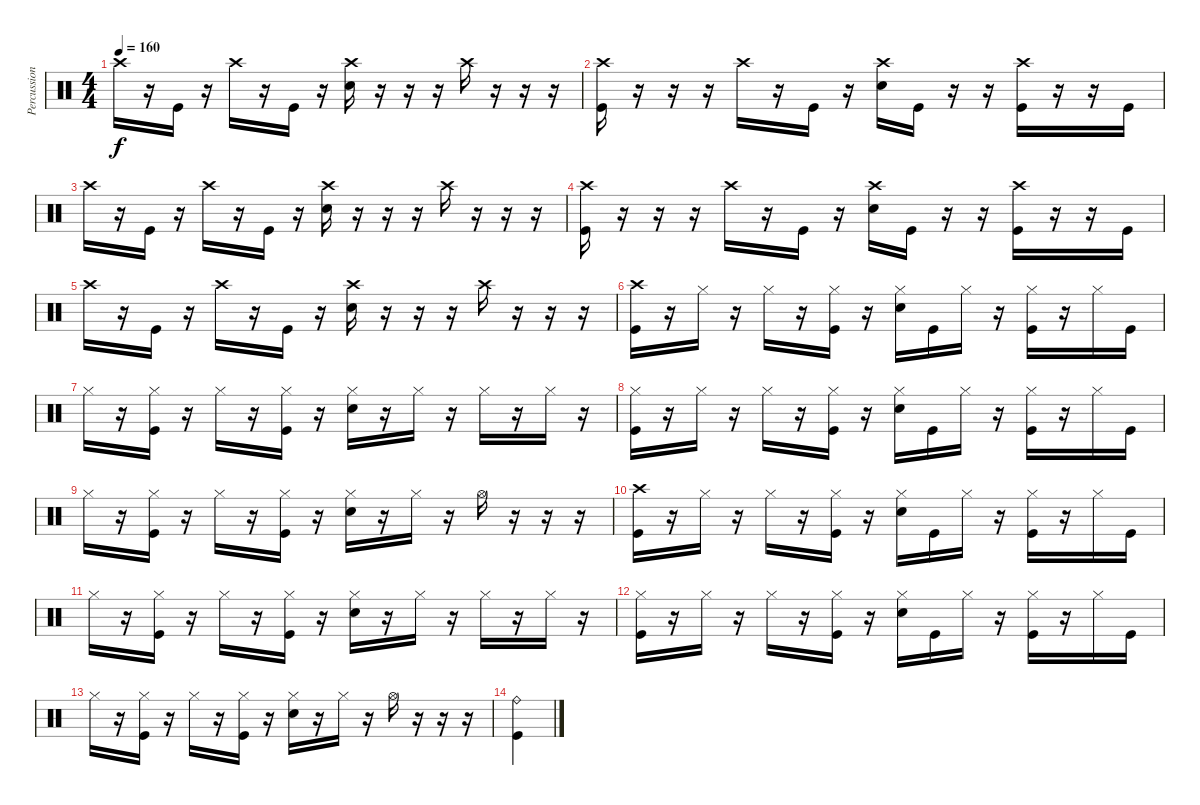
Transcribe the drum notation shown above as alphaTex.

\track ("Percussion" "Percussion") {instrument percussion}
\staff {score}
\articulation defaults
\ts (4 4)
\tempo 160
\clef neutral
\ks c "Crash high (hit)".16{dy f}
r.16 "Kick (hit)".16 r.16 "Crash high (hit)".16 r.16 "Kick (hit)".16 r.16 ("Crash high (hit)" "Snare (hit) 2").16 r.16 r.16 r.16 "Crash high (hit)".16 r.16 r.16 r.16 |
("Kick (hit)" "Crash high (hit)").16 r.16 r.16 r.16 "Crash high (hit)".16 r.16 "Kick (hit)".16 r.16 ("Crash high (hit)" "Snare (hit) 2").16 "Kick (hit)".16 r.16 r.16 ("Crash high (hit)" "Kick (hit)").16 r.16 r.16 "Kick (hit)".16 |
"Crash high (hit)".16 r.16 "Kick (hit)".16 r.16 "Crash high (hit)".16 r.16 "Kick (hit)".16 r.16 ("Crash high (hit)" "Snare (hit) 2").16 r.16 r.16 r.16 "Crash high (hit)".16 r.16 r.16 r.16 |
("Kick (hit)" "Crash high (hit)").16 r.16 r.16 r.16 "Crash high (hit)".16 r.16 "Kick (hit)".16 r.16 ("Crash high (hit)" "Snare (hit) 2").16 "Kick (hit)".16 r.16 r.16 ("Crash high (hit)" "Kick (hit)").16 r.16 r.16 "Kick (hit)".16 |
"Crash high (hit)".16 r.16 "Kick (hit)".16 r.16 "Crash high (hit)".16 r.16 "Kick (hit)".16 r.16 ("Crash high (hit)" "Snare (hit) 2").16 r.16 r.16 r.16 "Crash high (hit)".16 r.16 r.16 r.16 |
("Kick (hit)" "Crash high (hit)").16 r.16 "Hi-Hat (closed)".16 r.16 "Hi-Hat (closed)".16 r.16 ("Hi-Hat (closed)" "Kick (hit)").16 r.16 ("Hi-Hat (closed)" "Snare (hit) 2").16 "Kick (hit)".16 "Hi-Hat (closed)".16 r.16 ("Hi-Hat (closed)" "Kick (hit)").16 r.16 "Hi-Hat (closed)".16 "Kick (hit)".16 |
"Hi-Hat (closed)".16 r.16 ("Hi-Hat (closed)" "Kick (hit)").16 r.16 "Hi-Hat (closed)".16 r.16 ("Hi-Hat (closed)" "Kick (hit)").16 r.16 ("Hi-Hat (closed)" "Snare (hit) 2").16 r.16 "Hi-Hat (closed)".16 r.16 "Hi-Hat (closed)".16 r.16 "Hi-Hat (closed)".16 r.16 |
("Kick (hit)" "Hi-Hat (closed)").16 r.16 "Hi-Hat (closed)".16 r.16 "Hi-Hat (closed)".16 r.16 ("Hi-Hat (closed)" "Kick (hit)").16 r.16 ("Hi-Hat (closed)" "Snare (hit) 2").16 "Kick (hit)".16 "Hi-Hat (closed)".16 r.16 ("Hi-Hat (closed)" "Kick (hit)").16 r.16 "Hi-Hat (closed)".16 "Kick (hit)".16 |
"Hi-Hat (closed)".16 r.16 ("Hi-Hat (closed)" "Kick (hit)").16 r.16 "Hi-Hat (closed)".16 r.16 ("Hi-Hat (closed)" "Kick (hit)").16 r.16 ("Hi-Hat (closed)" "Snare (hit) 2").16 r.16 "Hi-Hat (closed)".16 r.16 "Hi-Hat (open)".16 r.16 r.16 r.16 |
("Kick (hit)" "Crash high (hit)").16 r.16 "Hi-Hat (closed)".16 r.16 "Hi-Hat (closed)".16 r.16 ("Hi-Hat (closed)" "Kick (hit)").16 r.16 ("Hi-Hat (closed)" "Snare (hit) 2").16 "Kick (hit)".16 "Hi-Hat (closed)".16 r.16 ("Hi-Hat (closed)" "Kick (hit)").16 r.16 "Hi-Hat (closed)".16 "Kick (hit)".16 |
"Hi-Hat (closed)".16 r.16 ("Hi-Hat (closed)" "Kick (hit)").16 r.16 "Hi-Hat (closed)".16 r.16 ("Hi-Hat (closed)" "Kick (hit)").16 r.16 ("Hi-Hat (closed)" "Snare (hit) 2").16 r.16 "Hi-Hat (closed)".16 r.16 "Hi-Hat (closed)".16 r.16 "Hi-Hat (closed)".16 r.16 |
("Kick (hit)" "Hi-Hat (closed)").16 r.16 "Hi-Hat (closed)".16 r.16 "Hi-Hat (closed)".16 r.16 ("Hi-Hat (closed)" "Kick (hit)").16 r.16 ("Hi-Hat (closed)" "Snare (hit) 2").16 "Kick (hit)".16 "Hi-Hat (closed)".16 r.16 ("Hi-Hat (closed)" "Kick (hit)").16 r.16 "Hi-Hat (closed)".16 "Kick (hit)".16 |
"Hi-Hat (closed)".16 r.16 ("Hi-Hat (closed)" "Kick (hit)").16 r.16 "Hi-Hat (closed)".16 r.16 ("Hi-Hat (closed)" "Kick (hit)").16 r.16 ("Hi-Hat (closed)" "Snare (hit) 2").16 r.16 "Hi-Hat (closed)".16 r.16 "Hi-Hat (open)".16 r.16 r.16 r.16 |
("Ride (bell)" "Kick (hit)").4
